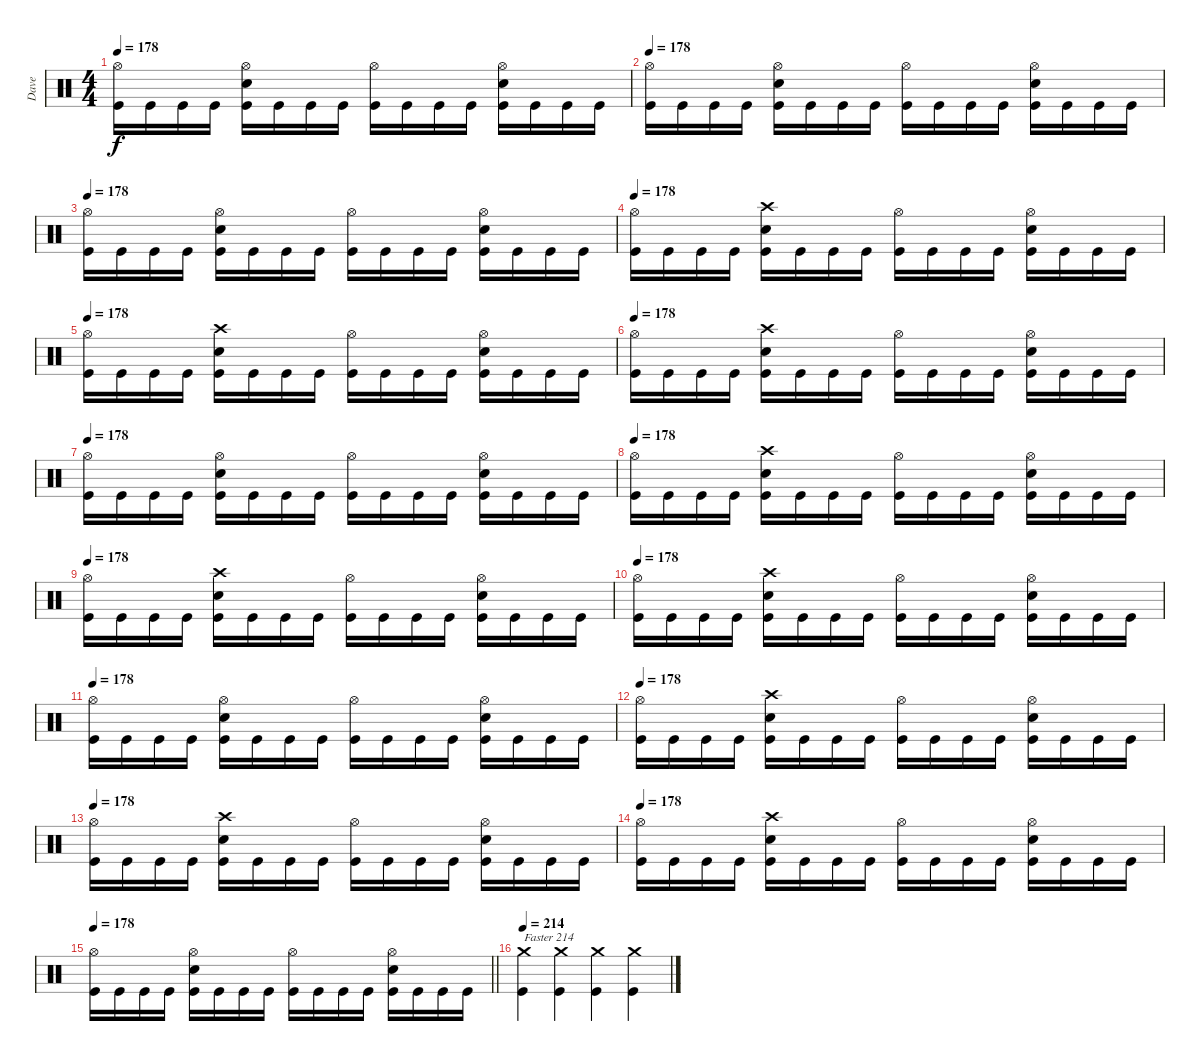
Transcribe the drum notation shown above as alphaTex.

\track ("Dave" "Dave") {instrument percussion}
\staff {score}
\articulation defaults
\ts (4 4)
\tempo 178
\clef neutral
\ks c
("Hi-Hat (open)" "Kick (hit)").16{dy f} "Kick (hit)".16 "Kick (hit)".16 "Kick (hit)".16 ("Hi-Hat (open)" "Snare (hit) 2" "Kick (hit)").16 "Kick (hit)".16 "Kick (hit)".16 "Kick (hit)".16 ("Hi-Hat (open)" "Kick (hit)").16 "Kick (hit)".16 "Kick (hit)".16 "Kick (hit)".16 ("Hi-Hat (open)" "Snare (hit) 2" "Kick (hit)").16 "Kick (hit)".16 "Kick (hit)".16 "Kick (hit)".16 |
\tempo 178
("Hi-Hat (open)" "Kick (hit)").16 "Kick (hit)".16 "Kick (hit)".16 "Kick (hit)".16 ("Hi-Hat (open)" "Snare (hit) 2" "Kick (hit)").16 "Kick (hit)".16 "Kick (hit)".16 "Kick (hit)".16 ("Hi-Hat (open)" "Kick (hit)").16 "Kick (hit)".16 "Kick (hit)".16 "Kick (hit)".16 ("Hi-Hat (open)" "Snare (hit) 2" "Kick (hit)").16 "Kick (hit)".16 "Kick (hit)".16 "Kick (hit)".16 |
\tempo 178
("Hi-Hat (open)" "Kick (hit)").16 "Kick (hit)".16 "Kick (hit)".16 "Kick (hit)".16 ("Hi-Hat (open)" "Snare (hit) 2" "Kick (hit)").16 "Kick (hit)".16 "Kick (hit)".16 "Kick (hit)".16 ("Hi-Hat (open)" "Kick (hit)").16 "Kick (hit)".16 "Kick (hit)".16 "Kick (hit)".16 ("Hi-Hat (open)" "Snare (hit) 2" "Kick (hit)").16 "Kick (hit)".16 "Kick (hit)".16 "Kick (hit)".16 |
\tempo 178
("Hi-Hat (open)" "Kick (hit)").16 "Kick (hit)".16 "Kick (hit)".16 "Kick (hit)".16 ("Crash high (hit)" "Snare (hit) 2" "Kick (hit)").16 "Kick (hit)".16 "Kick (hit)".16 "Kick (hit)".16 ("Hi-Hat (open)" "Kick (hit)").16 "Kick (hit)".16 "Kick (hit)".16 "Kick (hit)".16 ("Hi-Hat (open)" "Snare (hit) 2" "Kick (hit)").16 "Kick (hit)".16 "Kick (hit)".16 "Kick (hit)".16 |
\tempo 178
("Hi-Hat (open)" "Kick (hit)").16 "Kick (hit)".16 "Kick (hit)".16 "Kick (hit)".16 ("Crash high (hit)" "Snare (hit) 2" "Kick (hit)").16 "Kick (hit)".16 "Kick (hit)".16 "Kick (hit)".16 ("Hi-Hat (open)" "Kick (hit)").16 "Kick (hit)".16 "Kick (hit)".16 "Kick (hit)".16 ("Hi-Hat (open)" "Snare (hit) 2" "Kick (hit)").16 "Kick (hit)".16 "Kick (hit)".16 "Kick (hit)".16 |
\tempo 178
("Hi-Hat (open)" "Kick (hit)").16 "Kick (hit)".16 "Kick (hit)".16 "Kick (hit)".16 ("Crash high (hit)" "Snare (hit) 2" "Kick (hit)").16 "Kick (hit)".16 "Kick (hit)".16 "Kick (hit)".16 ("Hi-Hat (open)" "Kick (hit)").16 "Kick (hit)".16 "Kick (hit)".16 "Kick (hit)".16 ("Hi-Hat (open)" "Snare (hit) 2" "Kick (hit)").16 "Kick (hit)".16 "Kick (hit)".16 "Kick (hit)".16 |
\tempo 178
("Hi-Hat (open)" "Kick (hit)").16 "Kick (hit)".16 "Kick (hit)".16 "Kick (hit)".16 ("Hi-Hat (open)" "Snare (hit) 2" "Kick (hit)").16 "Kick (hit)".16 "Kick (hit)".16 "Kick (hit)".16 ("Hi-Hat (open)" "Kick (hit)").16 "Kick (hit)".16 "Kick (hit)".16 "Kick (hit)".16 ("Hi-Hat (open)" "Snare (hit) 2" "Kick (hit)").16 "Kick (hit)".16 "Kick (hit)".16 "Kick (hit)".16 |
\tempo 178
("Hi-Hat (open)" "Kick (hit)").16 "Kick (hit)".16 "Kick (hit)".16 "Kick (hit)".16 ("Crash high (hit)" "Snare (hit) 2" "Kick (hit)").16 "Kick (hit)".16 "Kick (hit)".16 "Kick (hit)".16 ("Hi-Hat (open)" "Kick (hit)").16 "Kick (hit)".16 "Kick (hit)".16 "Kick (hit)".16 ("Hi-Hat (open)" "Snare (hit) 2" "Kick (hit)").16 "Kick (hit)".16 "Kick (hit)".16 "Kick (hit)".16 |
\tempo 178
("Hi-Hat (open)" "Kick (hit)").16 "Kick (hit)".16 "Kick (hit)".16 "Kick (hit)".16 ("Crash high (hit)" "Snare (hit) 2" "Kick (hit)").16 "Kick (hit)".16 "Kick (hit)".16 "Kick (hit)".16 ("Hi-Hat (open)" "Kick (hit)").16 "Kick (hit)".16 "Kick (hit)".16 "Kick (hit)".16 ("Hi-Hat (open)" "Snare (hit) 2" "Kick (hit)").16 "Kick (hit)".16 "Kick (hit)".16 "Kick (hit)".16 |
\tempo 178
("Hi-Hat (open)" "Kick (hit)").16 "Kick (hit)".16 "Kick (hit)".16 "Kick (hit)".16 ("Crash high (hit)" "Snare (hit) 2" "Kick (hit)").16 "Kick (hit)".16 "Kick (hit)".16 "Kick (hit)".16 ("Hi-Hat (open)" "Kick (hit)").16 "Kick (hit)".16 "Kick (hit)".16 "Kick (hit)".16 ("Hi-Hat (open)" "Snare (hit) 2" "Kick (hit)").16 "Kick (hit)".16 "Kick (hit)".16 "Kick (hit)".16 |
\tempo 178
("Hi-Hat (open)" "Kick (hit)").16 "Kick (hit)".16 "Kick (hit)".16 "Kick (hit)".16 ("Hi-Hat (open)" "Snare (hit) 2" "Kick (hit)").16 "Kick (hit)".16 "Kick (hit)".16 "Kick (hit)".16 ("Hi-Hat (open)" "Kick (hit)").16 "Kick (hit)".16 "Kick (hit)".16 "Kick (hit)".16 ("Hi-Hat (open)" "Snare (hit) 2" "Kick (hit)").16 "Kick (hit)".16 "Kick (hit)".16 "Kick (hit)".16 |
\tempo 178
("Hi-Hat (open)" "Kick (hit)").16 "Kick (hit)".16 "Kick (hit)".16 "Kick (hit)".16 ("Crash high (hit)" "Snare (hit) 2" "Kick (hit)").16 "Kick (hit)".16 "Kick (hit)".16 "Kick (hit)".16 ("Hi-Hat (open)" "Kick (hit)").16 "Kick (hit)".16 "Kick (hit)".16 "Kick (hit)".16 ("Hi-Hat (open)" "Snare (hit) 2" "Kick (hit)").16 "Kick (hit)".16 "Kick (hit)".16 "Kick (hit)".16 |
\tempo 178
("Hi-Hat (open)" "Kick (hit)").16 "Kick (hit)".16 "Kick (hit)".16 "Kick (hit)".16 ("Crash high (hit)" "Snare (hit) 2" "Kick (hit)").16 "Kick (hit)".16 "Kick (hit)".16 "Kick (hit)".16 ("Hi-Hat (open)" "Kick (hit)").16 "Kick (hit)".16 "Kick (hit)".16 "Kick (hit)".16 ("Hi-Hat (open)" "Snare (hit) 2" "Kick (hit)").16 "Kick (hit)".16 "Kick (hit)".16 "Kick (hit)".16 |
\tempo 178
("Hi-Hat (open)" "Kick (hit)").16 "Kick (hit)".16 "Kick (hit)".16 "Kick (hit)".16 ("Crash high (hit)" "Snare (hit) 2" "Kick (hit)").16 "Kick (hit)".16 "Kick (hit)".16 "Kick (hit)".16 ("Hi-Hat (open)" "Kick (hit)").16 "Kick (hit)".16 "Kick (hit)".16 "Kick (hit)".16 ("Hi-Hat (open)" "Snare (hit) 2" "Kick (hit)").16 "Kick (hit)".16 "Kick (hit)".16 "Kick (hit)".16 |
\tempo 178
\barLineRight lightlight
("Hi-Hat (open)" "Kick (hit)").16 "Kick (hit)".16 "Kick (hit)".16 "Kick (hit)".16 ("Hi-Hat (open)" "Snare (hit) 2" "Kick (hit)").16 "Kick (hit)".16 "Kick (hit)".16 "Kick (hit)".16 ("Hi-Hat (open)" "Kick (hit)").16 "Kick (hit)".16 "Kick (hit)".16 "Kick (hit)".16 ("Hi-Hat (open)" "Snare (hit) 2" "Kick (hit)").16 "Kick (hit)".16 "Kick (hit)".16 "Kick (hit)".16 |
\tempo 214
("Crash medium (hit)" "Kick (hit)").4{txt "Faster 214"} ("Crash medium (hit)" "Kick (hit)").4 ("Crash medium (hit)" "Kick (hit)").4 ("Crash medium (hit)" "Kick (hit)").4
